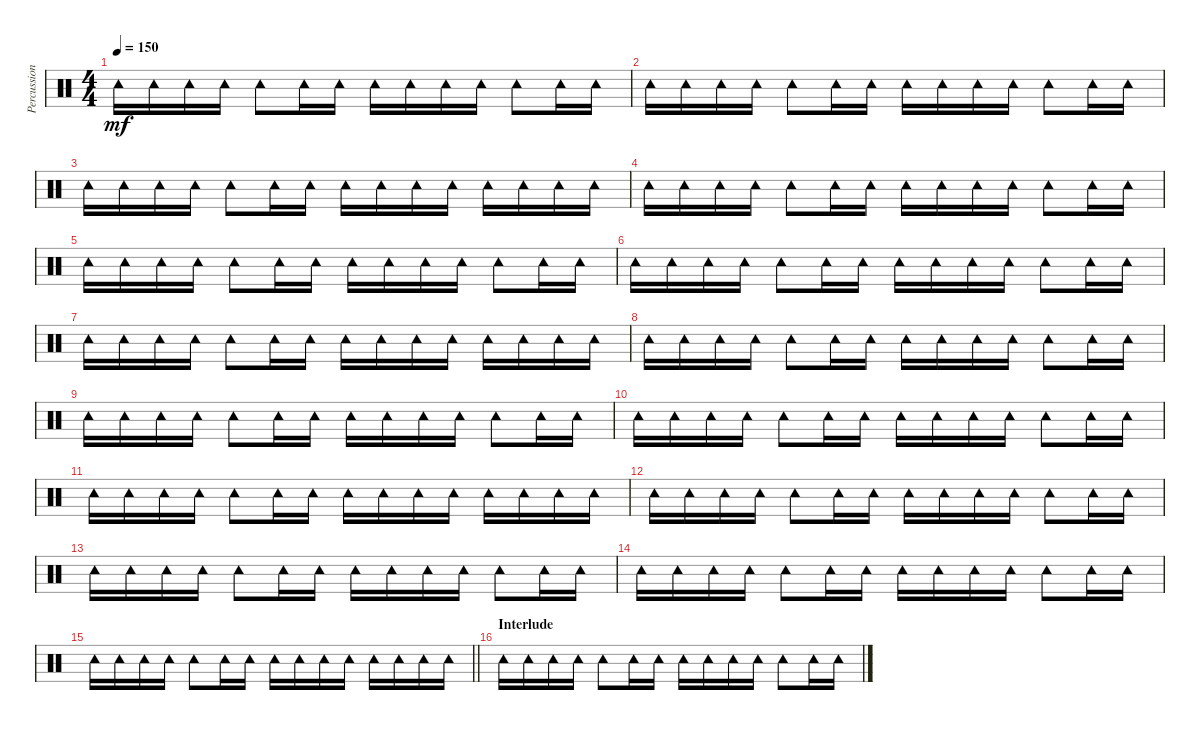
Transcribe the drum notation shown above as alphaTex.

\track ("Percussion" "Percussion") {instrument percussion}
\staff {score}
\articulation defaults
\ts (4 4)
\tempo 150
\clef neutral
\ks c "Tambourine (hit)".16{dy mf} "Tambourine (hit)".16 "Tambourine (hit)".16 "Tambourine (hit)".16 "Tambourine (hit)".8 "Tambourine (hit)".16 "Tambourine (hit)".16 "Tambourine (hit)".16 "Tambourine (hit)".16 "Tambourine (hit)".16 "Tambourine (hit)".16 "Tambourine (hit)".8 "Tambourine (hit)".16 "Tambourine (hit)".16
|
"Tambourine (hit)".16 "Tambourine (hit)".16 "Tambourine (hit)".16 "Tambourine (hit)".16 "Tambourine (hit)".8 "Tambourine (hit)".16 "Tambourine (hit)".16 "Tambourine (hit)".16 "Tambourine (hit)".16 "Tambourine (hit)".16 "Tambourine (hit)".16 "Tambourine (hit)".8 "Tambourine (hit)".16 "Tambourine (hit)".16 |
"Tambourine (hit)".16 "Tambourine (hit)".16 "Tambourine (hit)".16 "Tambourine (hit)".16 "Tambourine (hit)".8 "Tambourine (hit)".16 "Tambourine (hit)".16 "Tambourine (hit)".16 "Tambourine (hit)".16 "Tambourine (hit)".16 "Tambourine (hit)".16 "Tambourine (hit)".16 "Tambourine (hit)".16 "Tambourine (hit)".16 "Tambourine (hit)".16 |
"Tambourine (hit)".16 "Tambourine (hit)".16 "Tambourine (hit)".16 "Tambourine (hit)".16 "Tambourine (hit)".8 "Tambourine (hit)".16 "Tambourine (hit)".16 "Tambourine (hit)".16 "Tambourine (hit)".16 "Tambourine (hit)".16 "Tambourine (hit)".16 "Tambourine (hit)".8 "Tambourine (hit)".16 "Tambourine (hit)".16 |
"Tambourine (hit)".16 "Tambourine (hit)".16 "Tambourine (hit)".16 "Tambourine (hit)".16 "Tambourine (hit)".8 "Tambourine (hit)".16 "Tambourine (hit)".16 "Tambourine (hit)".16 "Tambourine (hit)".16 "Tambourine (hit)".16 "Tambourine (hit)".16 "Tambourine (hit)".8 "Tambourine (hit)".16 "Tambourine (hit)".16 |
"Tambourine (hit)".16 "Tambourine (hit)".16 "Tambourine (hit)".16 "Tambourine (hit)".16 "Tambourine (hit)".8 "Tambourine (hit)".16 "Tambourine (hit)".16 "Tambourine (hit)".16 "Tambourine (hit)".16 "Tambourine (hit)".16 "Tambourine (hit)".16 "Tambourine (hit)".8 "Tambourine (hit)".16 "Tambourine (hit)".16 |
"Tambourine (hit)".16 "Tambourine (hit)".16 "Tambourine (hit)".16 "Tambourine (hit)".16 "Tambourine (hit)".8 "Tambourine (hit)".16 "Tambourine (hit)".16 "Tambourine (hit)".16 "Tambourine (hit)".16 "Tambourine (hit)".16 "Tambourine (hit)".16 "Tambourine (hit)".16 "Tambourine (hit)".16 "Tambourine (hit)".16 "Tambourine (hit)".16 |
"Tambourine (hit)".16 "Tambourine (hit)".16 "Tambourine (hit)".16 "Tambourine (hit)".16 "Tambourine (hit)".8 "Tambourine (hit)".16 "Tambourine (hit)".16 "Tambourine (hit)".16 "Tambourine (hit)".16 "Tambourine (hit)".16 "Tambourine (hit)".16 "Tambourine (hit)".8 "Tambourine (hit)".16 "Tambourine (hit)".16 |
"Tambourine (hit)".16 "Tambourine (hit)".16 "Tambourine (hit)".16 "Tambourine (hit)".16 "Tambourine (hit)".8 "Tambourine (hit)".16 "Tambourine (hit)".16 "Tambourine (hit)".16 "Tambourine (hit)".16 "Tambourine (hit)".16 "Tambourine (hit)".16 "Tambourine (hit)".8 "Tambourine (hit)".16 "Tambourine (hit)".16 |
"Tambourine (hit)".16 "Tambourine (hit)".16 "Tambourine (hit)".16 "Tambourine (hit)".16 "Tambourine (hit)".8 "Tambourine (hit)".16 "Tambourine (hit)".16 "Tambourine (hit)".16 "Tambourine (hit)".16 "Tambourine (hit)".16 "Tambourine (hit)".16 "Tambourine (hit)".8 "Tambourine (hit)".16 "Tambourine (hit)".16 |
"Tambourine (hit)".16 "Tambourine (hit)".16 "Tambourine (hit)".16 "Tambourine (hit)".16 "Tambourine (hit)".8 "Tambourine (hit)".16 "Tambourine (hit)".16 "Tambourine (hit)".16 "Tambourine (hit)".16 "Tambourine (hit)".16 "Tambourine (hit)".16 "Tambourine (hit)".16 "Tambourine (hit)".16 "Tambourine (hit)".16 "Tambourine (hit)".16 |
"Tambourine (hit)".16 "Tambourine (hit)".16 "Tambourine (hit)".16 "Tambourine (hit)".16 "Tambourine (hit)".8 "Tambourine (hit)".16 "Tambourine (hit)".16 "Tambourine (hit)".16 "Tambourine (hit)".16 "Tambourine (hit)".16 "Tambourine (hit)".16 "Tambourine (hit)".8 "Tambourine (hit)".16 "Tambourine (hit)".16 |
"Tambourine (hit)".16 "Tambourine (hit)".16 "Tambourine (hit)".16 "Tambourine (hit)".16 "Tambourine (hit)".8 "Tambourine (hit)".16 "Tambourine (hit)".16 "Tambourine (hit)".16 "Tambourine (hit)".16 "Tambourine (hit)".16 "Tambourine (hit)".16 "Tambourine (hit)".8 "Tambourine (hit)".16 "Tambourine (hit)".16 |
"Tambourine (hit)".16 "Tambourine (hit)".16 "Tambourine (hit)".16 "Tambourine (hit)".16 "Tambourine (hit)".8 "Tambourine (hit)".16 "Tambourine (hit)".16 "Tambourine (hit)".16 "Tambourine (hit)".16 "Tambourine (hit)".16 "Tambourine (hit)".16 "Tambourine (hit)".8 "Tambourine (hit)".16 "Tambourine (hit)".16 |
\barLineRight lightlight "Tambourine (hit)".16 "Tambourine (hit)".16 "Tambourine (hit)".16 "Tambourine (hit)".16 "Tambourine (hit)".8 "Tambourine (hit)".16 "Tambourine (hit)".16 "Tambourine (hit)".16 "Tambourine (hit)".16 "Tambourine (hit)".16 "Tambourine (hit)".16 "Tambourine (hit)".16 "Tambourine (hit)".16 "Tambourine (hit)".16 "Tambourine (hit)".16
|
\section ("" "Interlude")
"Tambourine (hit)".16 "Tambourine (hit)".16 "Tambourine (hit)".16 "Tambourine (hit)".16 "Tambourine (hit)".8 "Tambourine (hit)".16 "Tambourine (hit)".16 "Tambourine (hit)".16 "Tambourine (hit)".16 "Tambourine (hit)".16 "Tambourine (hit)".16 "Tambourine (hit)".8 "Tambourine (hit)".16 "Tambourine (hit)".16
